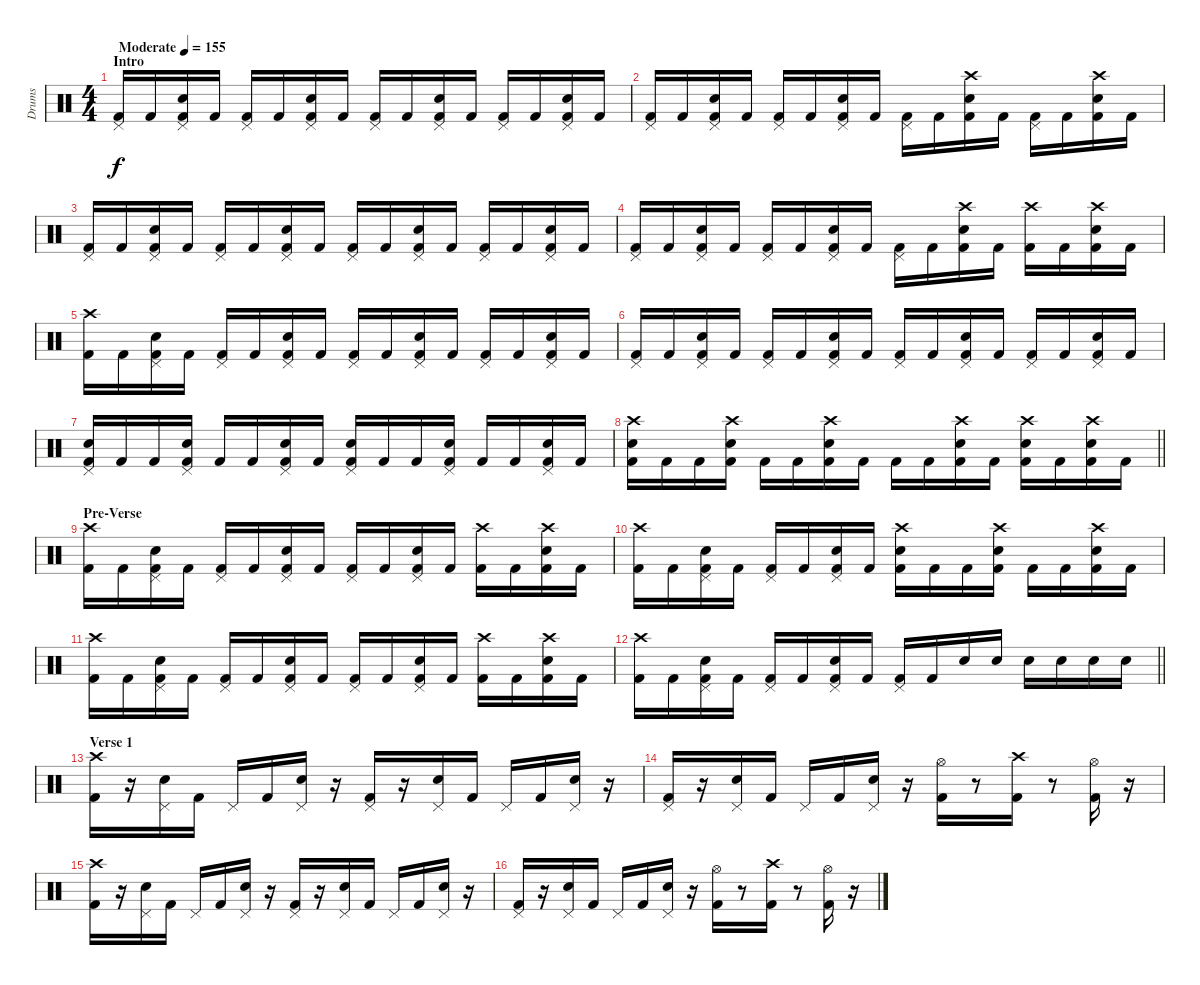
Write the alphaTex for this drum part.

\track ("Drums" "Drums") {instrument percussion}
\staff {score}
\articulation defaults
\ts (4 4)
\section ("" "Intro")
\tempo (155 "Moderate")
\clef neutral
\ks c
("Pedal Hi-Hat (hit)" "Kick (hit) 2").16{dy f} "Kick (hit) 2".16 ("Pedal Hi-Hat (hit)" "Snare (hit) 2" "Kick (hit) 2").16 "Kick (hit) 2".16 ("Pedal Hi-Hat (hit)" "Kick (hit) 2").16 "Kick (hit) 2".16 ("Pedal Hi-Hat (hit)" "Snare (hit) 2" "Kick (hit) 2").16 "Kick (hit) 2".16 ("Pedal Hi-Hat (hit)" "Kick (hit) 2").16 "Kick (hit) 2".16 ("Pedal Hi-Hat (hit)" "Snare (hit) 2" "Kick (hit) 2").16 "Kick (hit) 2".16 ("Pedal Hi-Hat (hit)" "Kick (hit) 2").16 "Kick (hit) 2".16 ("Pedal Hi-Hat (hit)" "Snare (hit) 2" "Kick (hit) 2").16 "Kick (hit) 2".16 |
("Pedal Hi-Hat (hit)" "Kick (hit) 2").16 "Kick (hit) 2".16 ("Pedal Hi-Hat (hit)" "Snare (hit) 2" "Kick (hit) 2").16 "Kick (hit) 2".16 ("Pedal Hi-Hat (hit)" "Kick (hit) 2").16 "Kick (hit) 2".16 ("Pedal Hi-Hat (hit)" "Snare (hit) 2" "Kick (hit) 2").16 "Kick (hit) 2".16 ("Pedal Hi-Hat (hit)" "Kick (hit) 2").16 "Kick (hit) 2".16 ("Crash high (hit)" "Snare (hit) 2" "Kick (hit) 2").16 "Kick (hit) 2".16 ("Pedal Hi-Hat (hit)" "Kick (hit) 2").16 "Kick (hit) 2".16 ("Crash high (hit)" "Snare (hit) 2" "Kick (hit) 2").16 "Kick (hit) 2".16 |
("Pedal Hi-Hat (hit)" "Kick (hit) 2").16 "Kick (hit) 2".16 ("Pedal Hi-Hat (hit)" "Snare (hit) 2" "Kick (hit) 2").16 "Kick (hit) 2".16 ("Pedal Hi-Hat (hit)" "Kick (hit) 2").16 "Kick (hit) 2".16 ("Pedal Hi-Hat (hit)" "Snare (hit) 2" "Kick (hit) 2").16 "Kick (hit) 2".16 ("Pedal Hi-Hat (hit)" "Kick (hit) 2").16 "Kick (hit) 2".16 ("Pedal Hi-Hat (hit)" "Snare (hit) 2" "Kick (hit) 2").16 "Kick (hit) 2".16 ("Pedal Hi-Hat (hit)" "Kick (hit) 2").16 "Kick (hit) 2".16 ("Pedal Hi-Hat (hit)" "Snare (hit) 2" "Kick (hit) 2").16 "Kick (hit) 2".16 |
("Pedal Hi-Hat (hit)" "Kick (hit) 2").16 "Kick (hit) 2".16 ("Pedal Hi-Hat (hit)" "Snare (hit) 2" "Kick (hit) 2").16 "Kick (hit) 2".16 ("Pedal Hi-Hat (hit)" "Kick (hit) 2").16 "Kick (hit) 2".16 ("Pedal Hi-Hat (hit)" "Snare (hit) 2" "Kick (hit) 2").16 "Kick (hit) 2".16 ("Pedal Hi-Hat (hit)" "Kick (hit) 2").16 "Kick (hit) 2".16 ("Crash high (hit)" "Snare (hit) 2" "Kick (hit) 2").16 "Kick (hit) 2".16 ("Crash high (hit)" "Kick (hit) 2").16 "Kick (hit) 2".16 ("Crash high (hit)" "Snare (hit) 2" "Kick (hit) 2").16 "Kick (hit) 2".16 |
("Crash high (hit)" "Kick (hit) 2").16 "Kick (hit) 2".16 ("Pedal Hi-Hat (hit)" "Snare (hit) 2" "Kick (hit) 2").16 "Kick (hit) 2".16 ("Pedal Hi-Hat (hit)" "Kick (hit) 2").16 "Kick (hit) 2".16 ("Pedal Hi-Hat (hit)" "Snare (hit) 2" "Kick (hit) 2").16 "Kick (hit) 2".16 ("Pedal Hi-Hat (hit)" "Kick (hit) 2").16 "Kick (hit) 2".16 ("Pedal Hi-Hat (hit)" "Snare (hit) 2" "Kick (hit) 2").16 "Kick (hit) 2".16 ("Pedal Hi-Hat (hit)" "Kick (hit) 2").16 "Kick (hit) 2".16 ("Pedal Hi-Hat (hit)" "Snare (hit) 2" "Kick (hit) 2").16 "Kick (hit) 2".16 |
("Pedal Hi-Hat (hit)" "Kick (hit) 2").16 "Kick (hit) 2".16 ("Pedal Hi-Hat (hit)" "Snare (hit) 2" "Kick (hit) 2").16 "Kick (hit) 2".16 ("Pedal Hi-Hat (hit)" "Kick (hit) 2").16 "Kick (hit) 2".16 ("Pedal Hi-Hat (hit)" "Snare (hit) 2" "Kick (hit) 2").16 "Kick (hit) 2".16 ("Pedal Hi-Hat (hit)" "Kick (hit) 2").16 "Kick (hit) 2".16 ("Pedal Hi-Hat (hit)" "Snare (hit) 2" "Kick (hit) 2").16 "Kick (hit) 2".16 ("Pedal Hi-Hat (hit)" "Kick (hit) 2").16 "Kick (hit) 2".16 ("Pedal Hi-Hat (hit)" "Snare (hit) 2" "Kick (hit) 2").16 "Kick (hit) 2".16 |
("Pedal Hi-Hat (hit)" "Snare (hit) 2" "Kick (hit) 2").16 "Kick (hit) 2".16 "Kick (hit) 2".16 ("Pedal Hi-Hat (hit)" "Snare (hit) 2" "Kick (hit) 2").16 "Kick (hit) 2".16 "Kick (hit) 2".16 ("Pedal Hi-Hat (hit)" "Snare (hit) 2" "Kick (hit) 2").16 "Kick (hit) 2".16 ("Pedal Hi-Hat (hit)" "Snare (hit) 2" "Kick (hit) 2").16 "Kick (hit) 2".16 "Kick (hit) 2".16 ("Pedal Hi-Hat (hit)" "Snare (hit) 2" "Kick (hit) 2").16 "Kick (hit) 2".16 "Kick (hit) 2".16 ("Pedal Hi-Hat (hit)" "Snare (hit) 2" "Kick (hit) 2").16 "Kick (hit) 2".16 |
\barLineRight lightlight
("Crash high (hit)" "Snare (hit) 2" "Kick (hit) 2").16 "Kick (hit) 2".16 "Kick (hit) 2".16 ("Crash high (hit)" "Snare (hit) 2" "Kick (hit) 2").16 "Kick (hit) 2".16 "Kick (hit) 2".16 ("Crash high (hit)" "Snare (hit) 2" "Kick (hit) 2").16 "Kick (hit) 2".16 "Kick (hit) 2".16 "Kick (hit) 2".16 ("Crash high (hit)" "Snare (hit) 2" "Kick (hit) 2").16 "Kick (hit) 2".16 ("Crash high (hit)" "Snare (hit) 2" "Kick (hit) 2").16 "Kick (hit) 2".16 ("Crash high (hit)" "Snare (hit) 2" "Kick (hit) 2").16 "Kick (hit) 2".16 |
\section ("" "Pre-Verse")
("Crash high (hit)" "Kick (hit) 2").16 "Kick (hit) 2".16 ("Pedal Hi-Hat (hit)" "Snare (hit) 2" "Kick (hit) 2").16 "Kick (hit) 2".16 ("Pedal Hi-Hat (hit)" "Kick (hit) 2").16 "Kick (hit) 2".16 ("Pedal Hi-Hat (hit)" "Snare (hit) 2" "Kick (hit) 2").16 "Kick (hit) 2".16 ("Pedal Hi-Hat (hit)" "Kick (hit) 2").16 "Kick (hit) 2".16 ("Pedal Hi-Hat (hit)" "Snare (hit) 2" "Kick (hit) 2").16 "Kick (hit) 2".16 ("Crash high (hit)" "Kick (hit) 2").16 "Kick (hit) 2".16 ("Crash high (hit)" "Snare (hit) 2" "Kick (hit) 2").16 "Kick (hit) 2".16 |
("Crash high (hit)" "Kick (hit) 2").16 "Kick (hit) 2".16 ("Pedal Hi-Hat (hit)" "Snare (hit) 2" "Kick (hit) 2").16 "Kick (hit) 2".16 ("Pedal Hi-Hat (hit)" "Kick (hit) 2").16 "Kick (hit) 2".16 ("Pedal Hi-Hat (hit)" "Snare (hit) 2" "Kick (hit) 2").16 "Kick (hit) 2".16 ("Crash high (hit)" "Snare (hit) 2" "Kick (hit) 2").16 "Kick (hit) 2".16 "Kick (hit) 2".16 ("Crash high (hit)" "Snare (hit) 2" "Kick (hit) 2").16 "Kick (hit) 2".16 "Kick (hit) 2".16 ("Crash high (hit)" "Snare (hit) 2" "Kick (hit) 2").16 "Kick (hit) 2".16 |
("Crash high (hit)" "Kick (hit) 2").16 "Kick (hit) 2".16 ("Pedal Hi-Hat (hit)" "Snare (hit) 2" "Kick (hit) 2").16 "Kick (hit) 2".16 ("Pedal Hi-Hat (hit)" "Kick (hit) 2").16 "Kick (hit) 2".16 ("Pedal Hi-Hat (hit)" "Snare (hit) 2" "Kick (hit) 2").16 "Kick (hit) 2".16 ("Pedal Hi-Hat (hit)" "Kick (hit) 2").16 "Kick (hit) 2".16 ("Pedal Hi-Hat (hit)" "Snare (hit) 2" "Kick (hit) 2").16 "Kick (hit) 2".16 ("Crash high (hit)" "Kick (hit) 2").16 "Kick (hit) 2".16 ("Crash high (hit)" "Snare (hit) 2" "Kick (hit) 2").16 "Kick (hit) 2".16 |
\barLineRight lightlight
("Crash high (hit)" "Kick (hit) 2").16 "Kick (hit) 2".16 ("Pedal Hi-Hat (hit)" "Snare (hit) 2" "Kick (hit) 2").16 "Kick (hit) 2".16 ("Pedal Hi-Hat (hit)" "Kick (hit) 2").16 "Kick (hit) 2".16 ("Pedal Hi-Hat (hit)" "Snare (hit) 2" "Kick (hit) 2").16 "Kick (hit) 2".16 ("Pedal Hi-Hat (hit)" "Kick (hit) 2").16 "Kick (hit) 2".16 "Snare (hit) 2".16 "Snare (hit) 2".16 "Snare (hit) 2".16 "Snare (hit) 2".16 "Snare (hit) 2".16 "Snare (hit) 2".16 |
\section ("" "Verse 1")
("Crash high (hit)" "Kick (hit) 2").16 r.16 ("Pedal Hi-Hat (hit)" "Snare (hit) 2").16 "Kick (hit) 2".16 "Pedal Hi-Hat (hit)".16 "Kick (hit) 2".16 ("Pedal Hi-Hat (hit)" "Snare (hit) 2").16 r.16 ("Pedal Hi-Hat (hit)" "Kick (hit) 2").16 r.16 ("Pedal Hi-Hat (hit)" "Snare (hit) 2").16 "Kick (hit) 2".16 "Pedal Hi-Hat (hit)".16 "Kick (hit) 2".16 ("Pedal Hi-Hat (hit)" "Snare (hit) 2").16 r.16 |
("Pedal Hi-Hat (hit)" "Kick (hit) 2").16 r.16 ("Pedal Hi-Hat (hit)" "Snare (hit) 2").16 "Kick (hit) 2".16 "Pedal Hi-Hat (hit)".16 "Kick (hit) 2".16 ("Pedal Hi-Hat (hit)" "Snare (hit) 2").16 r.16 ("Hi-Hat (open)" "Kick (hit) 2").16 r.8 ("Crash high (hit)" "Kick (hit) 2").16 r.8 ("Hi-Hat (open)" "Kick (hit) 2").16 r.16 |
("Crash high (hit)" "Kick (hit) 2").16 r.16 ("Pedal Hi-Hat (hit)" "Snare (hit) 2").16 "Kick (hit) 2".16 "Pedal Hi-Hat (hit)".16 "Kick (hit) 2".16 ("Pedal Hi-Hat (hit)" "Snare (hit) 2").16 r.16 ("Pedal Hi-Hat (hit)" "Kick (hit) 2").16 r.16 ("Pedal Hi-Hat (hit)" "Snare (hit) 2").16 "Kick (hit) 2".16 "Pedal Hi-Hat (hit)".16 "Kick (hit) 2".16 ("Pedal Hi-Hat (hit)" "Snare (hit) 2").16 r.16 |
("Pedal Hi-Hat (hit)" "Kick (hit) 2").16 r.16 ("Pedal Hi-Hat (hit)" "Snare (hit) 2").16 "Kick (hit) 2".16 "Pedal Hi-Hat (hit)".16 "Kick (hit) 2".16 ("Pedal Hi-Hat (hit)" "Snare (hit) 2").16 r.16 ("Hi-Hat (open)" "Kick (hit) 2").16 r.8 ("Crash high (hit)" "Kick (hit) 2").16 r.8 ("Hi-Hat (open)" "Kick (hit) 2").16 r.16
